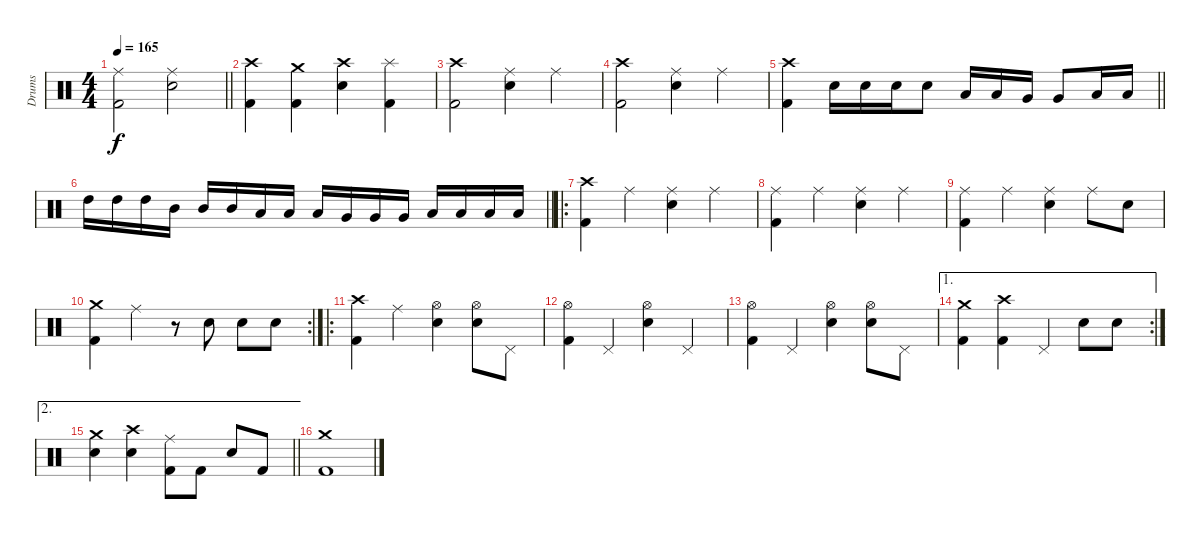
\track ("Drums" "Drums") {instrument percussion}
\staff {score}
\articulation defaults
\ts (4 4)
\tempo 165
\clef neutral
\barLineRight lightlight
\ks c
("Kick (hit) 2" "Ride (middle)").2{dy f} ("Snare (hit) 2" "Ride (middle)").2 |
("Kick (hit) 2" "Crash high (hit)").4 ("Kick (hit) 2" "Crash medium (hit)").4 ("Snare (hit) 2" "Crash high (hit)").4 ("Kick (hit) 2" "Splash (hit)").4 |
("Kick (hit) 2" "Crash high (hit)").2 ("Snare (hit) 2" "Ride (middle)").4 "Ride (middle)".4 |
("Kick (hit) 2" "Crash high (hit)").2 ("Snare (hit) 2" "Ride (middle)").4 "Ride (middle)".4 |
\barLineRight lightlight
("Kick (hit) 2" "Crash high (hit)").4 "Snare (hit) 2".16 "Snare (hit) 2".16 "Snare (hit) 2".16 "Snare (hit) 2".8 "Low Tom (hit)".16 "Low Tom (hit)".16 "Very Low Tom (hit)".16 "Very Low Tom (hit)".8 "Low Floor Tom (hit)".16 "Low Floor Tom (hit)".16 |
\barLineRight lightlight "High Tom (hit)".16 "High Tom (hit)".16 "High Tom (hit)".16 "Mid Tom (hit)".16 "Mid Tom (hit)".16 "Mid Tom (hit)".16 "Low Tom (hit)".16 "Low Tom (hit)".16 "Low Tom (hit)".16 "Very Low Tom (hit)".16 "Very Low Tom (hit)".16 "Very Low Tom (hit)".16 "Low Floor Tom (hit)".16 "Low Floor Tom (hit)".16 "Low Floor Tom (hit)".16 "Low Floor Tom (hit)".16
|
\ro
("Crash high (hit)" "Kick (hit) 2").4 "Ride (middle)".4 ("Ride (middle)" "Snare (hit) 2").4 "Ride (middle)".4 |
("Ride (middle)" "Kick (hit) 2").4 "Ride (middle)".4 ("Ride (middle)" "Snare (hit) 2").4 "Ride (middle)".4 |
("Ride (middle)" "Kick (hit) 2").4 "Ride (middle)".4 ("Ride (middle)" "Snare (hit) 2").4 "Ride (middle)".8 "Snare (hit) 2".8 |
\rc 2
("Kick (hit) 2" "Crash medium (hit)").4 "Ride (middle)".4 r.8 "Snare (hit) 2".8 "Snare (hit) 2".8 "Snare (hit) 2".8 |
\ro
("Kick (hit) 2" "Crash high (hit)").4 "Ride (middle)".4 ("Snare (hit) 2" "Hi-Hat (open)").4 ("Snare (hit) 2" "Hi-Hat (open)").8 "Pedal Hi-Hat (hit)".8 |
("Kick (hit) 2" "Hi-Hat (open)").4 "Pedal Hi-Hat (hit)".4 ("Snare (hit) 2" "Hi-Hat (open)").4 "Pedal Hi-Hat (hit)".4 |
("Kick (hit) 2" "Hi-Hat (open)").4 "Pedal Hi-Hat (hit)".4 ("Snare (hit) 2" "Hi-Hat (open)").4 ("Snare (hit) 2" "Hi-Hat (open)").8 "Pedal Hi-Hat (hit)".8 |
\ae 1
\rc 2
("Kick (hit) 2" "Crash medium (hit)").4 ("Kick (hit) 2" "Crash high (hit)").4 "Pedal Hi-Hat (hit)".4 "Snare (hit) 2".8 "Snare (hit) 2".8 |
\ae 2
\barLineRight lightlight
("Crash medium (hit)" "Snare (hit) 2").4 ("Crash high (hit)" "Snare (hit) 2").4 ("Kick (hit) 2" "Ride (middle)").8 "Kick (hit) 2".8 "Snare (hit) 2".8 "Kick (hit) 2".8 |
("Kick (hit) 2" "Crash medium (hit)").1
